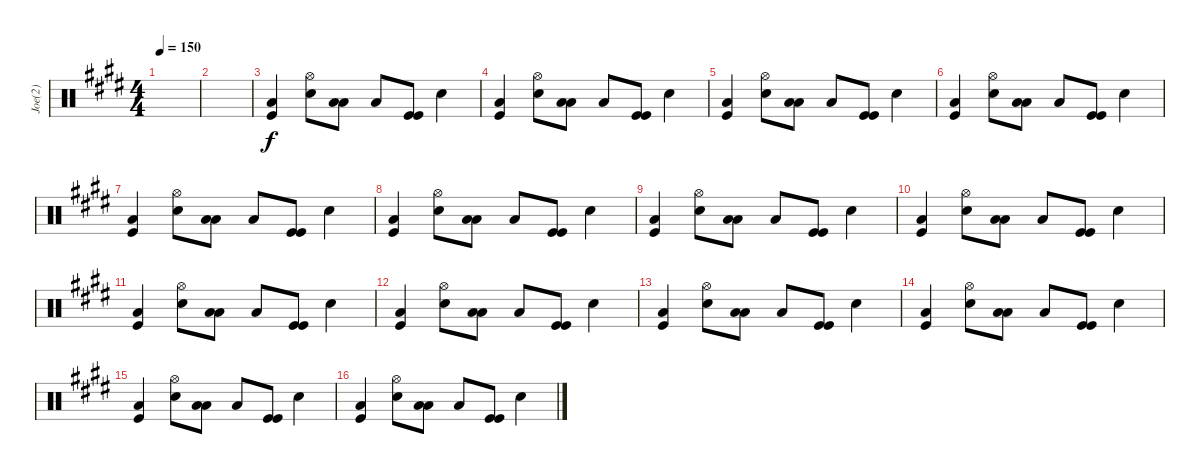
\track ("Joe(2)" "Joe(2)") {instrument percussion}
\staff {score}
\articulation defaults
\ts (4 4)
\tempo 150
\clef neutral
\ks c#minor
|
|
("Kick (hit)" "Low Floor Tom (hit)").4 ("Snare (hit) 2" "Hi-Hat (open)").8 ("Low Tom (hit)" "Low Floor Tom (hit)").8 "Low Floor Tom (hit)".8 ("Kick (hit)" "Kick (hit)").8 "Snare (hit) 2".4 |
("Kick (hit)" "Low Floor Tom (hit)").4 ("Snare (hit) 2" "Hi-Hat (open)").8 ("Low Tom (hit)" "Low Floor Tom (hit)").8 "Low Floor Tom (hit)".8 ("Kick (hit)" "Kick (hit)").8 "Snare (hit) 2".4 |
("Kick (hit)" "Low Floor Tom (hit)").4 ("Snare (hit) 2" "Hi-Hat (open)").8 ("Low Tom (hit)" "Low Floor Tom (hit)").8 "Low Floor Tom (hit)".8 ("Kick (hit)" "Kick (hit)").8 "Snare (hit) 2".4 |
("Kick (hit)" "Low Floor Tom (hit)").4 ("Snare (hit) 2" "Hi-Hat (open)").8 ("Low Tom (hit)" "Low Floor Tom (hit)").8 "Low Floor Tom (hit)".8 ("Kick (hit)" "Kick (hit)").8 "Snare (hit) 2".4 |
("Kick (hit)" "Low Floor Tom (hit)").4 ("Snare (hit) 2" "Hi-Hat (open)").8 ("Low Tom (hit)" "Low Floor Tom (hit)").8 "Low Floor Tom (hit)".8 ("Kick (hit)" "Kick (hit)").8 "Snare (hit) 2".4 |
("Kick (hit)" "Low Floor Tom (hit)").4 ("Snare (hit) 2" "Hi-Hat (open)").8 ("Low Tom (hit)" "Low Floor Tom (hit)").8 "Low Floor Tom (hit)".8 ("Kick (hit)" "Kick (hit)").8 "Snare (hit) 2".4 |
("Kick (hit)" "Low Floor Tom (hit)").4 ("Snare (hit) 2" "Hi-Hat (open)").8 ("Low Tom (hit)" "Low Floor Tom (hit)").8 "Low Floor Tom (hit)".8 ("Kick (hit)" "Kick (hit)").8 "Snare (hit) 2".4 |
("Kick (hit)" "Low Floor Tom (hit)").4 ("Snare (hit) 2" "Hi-Hat (open)").8 ("Low Tom (hit)" "Low Floor Tom (hit)").8 "Low Floor Tom (hit)".8 ("Kick (hit)" "Kick (hit)").8 "Snare (hit) 2".4 |
("Kick (hit)" "Low Floor Tom (hit)").4 ("Snare (hit) 2" "Hi-Hat (open)").8 ("Low Tom (hit)" "Low Floor Tom (hit)").8 "Low Floor Tom (hit)".8 ("Kick (hit)" "Kick (hit)").8 "Snare (hit) 2".4 |
("Kick (hit)" "Low Floor Tom (hit)").4 ("Snare (hit) 2" "Hi-Hat (open)").8 ("Low Tom (hit)" "Low Floor Tom (hit)").8 "Low Floor Tom (hit)".8 ("Kick (hit)" "Kick (hit)").8 "Snare (hit) 2".4 |
("Kick (hit)" "Low Floor Tom (hit)").4 ("Snare (hit) 2" "Hi-Hat (open)").8 ("Low Tom (hit)" "Low Floor Tom (hit)").8 "Low Floor Tom (hit)".8 ("Kick (hit)" "Kick (hit)").8 "Snare (hit) 2".4 |
("Kick (hit)" "Low Floor Tom (hit)").4 ("Snare (hit) 2" "Hi-Hat (open)").8 ("Low Tom (hit)" "Low Floor Tom (hit)").8 "Low Floor Tom (hit)".8 ("Kick (hit)" "Kick (hit)").8 "Snare (hit) 2".4 |
("Kick (hit)" "Low Floor Tom (hit)").4 ("Snare (hit) 2" "Hi-Hat (open)").8 ("Low Tom (hit)" "Low Floor Tom (hit)").8 "Low Floor Tom (hit)".8 ("Kick (hit)" "Kick (hit)").8 "Snare (hit) 2".4 |
("Kick (hit)" "Low Floor Tom (hit)").4 ("Snare (hit) 2" "Hi-Hat (open)").8 ("Low Tom (hit)" "Low Floor Tom (hit)").8 "Low Floor Tom (hit)".8 ("Kick (hit)" "Kick (hit)").8 "Snare (hit) 2".4
